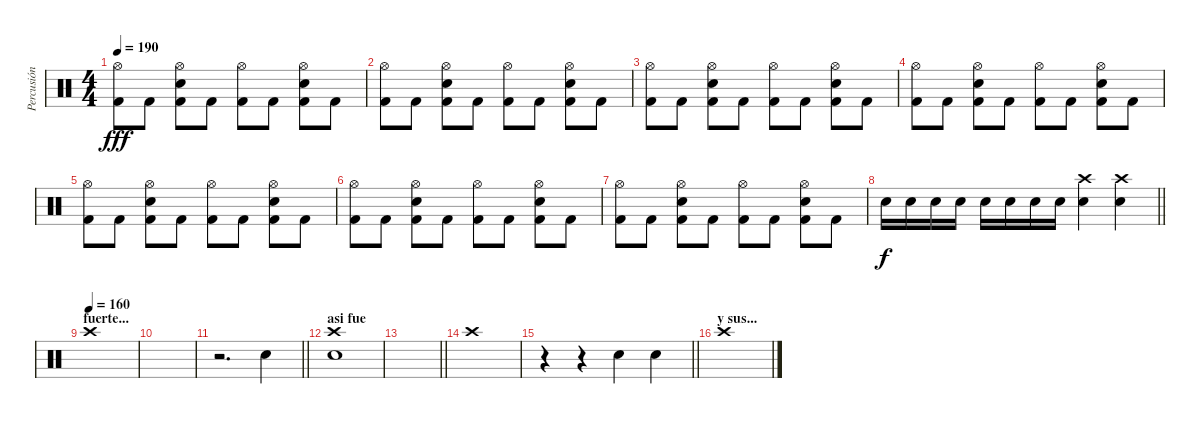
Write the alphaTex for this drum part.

\track ("Percusión" "Percusión") {instrument percussion}
\staff {score}
\articulation defaults
\ts (4 4)
\tempo 190
\clef neutral
\ks c
("Hi-Hat (open)" "Kick (hit) 2").8{dy fff} "Kick (hit) 2".8 ("Hi-Hat (open)" "Electric Snare (hit)" "Kick (hit) 2").8 "Kick (hit) 2".8 ("Hi-Hat (open)" "Kick (hit) 2").8 "Kick (hit) 2".8 ("Hi-Hat (open)" "Electric Snare (hit)" "Kick (hit) 2").8 "Kick (hit) 2".8 |
("Hi-Hat (open)" "Kick (hit) 2").8 "Kick (hit) 2".8 ("Hi-Hat (open)" "Electric Snare (hit)" "Kick (hit) 2").8 "Kick (hit) 2".8 ("Hi-Hat (open)" "Kick (hit) 2").8 "Kick (hit) 2".8 ("Hi-Hat (open)" "Electric Snare (hit)" "Kick (hit) 2").8 "Kick (hit) 2".8 |
("Hi-Hat (open)" "Kick (hit) 2").8 "Kick (hit) 2".8 ("Hi-Hat (open)" "Electric Snare (hit)" "Kick (hit) 2").8 "Kick (hit) 2".8 ("Hi-Hat (open)" "Kick (hit) 2").8 "Kick (hit) 2".8 ("Hi-Hat (open)" "Electric Snare (hit)" "Kick (hit) 2").8 "Kick (hit) 2".8 |
("Hi-Hat (open)" "Kick (hit) 2").8 "Kick (hit) 2".8 ("Hi-Hat (open)" "Electric Snare (hit)" "Kick (hit) 2").8 "Kick (hit) 2".8 ("Hi-Hat (open)" "Kick (hit) 2").8 "Kick (hit) 2".8 ("Hi-Hat (open)" "Electric Snare (hit)" "Kick (hit) 2").8 "Kick (hit) 2".8 |
("Hi-Hat (open)" "Kick (hit) 2").8 "Kick (hit) 2".8 ("Hi-Hat (open)" "Electric Snare (hit)" "Kick (hit) 2").8 "Kick (hit) 2".8 ("Hi-Hat (open)" "Kick (hit) 2").8 "Kick (hit) 2".8 ("Hi-Hat (open)" "Electric Snare (hit)" "Kick (hit) 2").8 "Kick (hit) 2".8 |
("Hi-Hat (open)" "Kick (hit) 2").8 "Kick (hit) 2".8 ("Hi-Hat (open)" "Electric Snare (hit)" "Kick (hit) 2").8 "Kick (hit) 2".8 ("Hi-Hat (open)" "Kick (hit) 2").8 "Kick (hit) 2".8 ("Hi-Hat (open)" "Electric Snare (hit)" "Kick (hit) 2").8 "Kick (hit) 2".8 |
("Hi-Hat (open)" "Kick (hit) 2").8 "Kick (hit) 2".8 ("Hi-Hat (open)" "Electric Snare (hit)" "Kick (hit) 2").8 "Kick (hit) 2".8 ("Hi-Hat (open)" "Kick (hit) 2").8 "Kick (hit) 2".8 ("Hi-Hat (open)" "Electric Snare (hit)" "Kick (hit) 2").8 "Kick (hit) 2".8 |
\barLineRight lightlight "Snare (hit) 2".16{dy f} "Snare (hit) 2".16 "Snare (hit) 2".16 "Snare (hit) 2".16 "Snare (hit) 2".16 "Snare (hit) 2".16 "Snare (hit) 2".16 "Snare (hit) 2".16
("Crash high (hit)" "Snare (hit) 2").4 ("Snare (hit) 2" "Crash high (hit)").4 |
\section ("" "fuerte...")
\tempo (160)
"Crash high (hit)".1 |
|
\barLineRight lightlight
r.2{d} "Snare (hit) 2".4 |
\section ("" "asi fue")
("Snare (hit) 2" "Crash high (hit)").1 |
\barLineRight lightlight
|
\section ("" "")
"Crash high (hit)".1 |
\barLineRight lightlight
r.4 r.4 "Snare (hit) 2".4 "Snare (hit) 2".4 |
\section ("" "y sus...")
"Crash high (hit)".1
